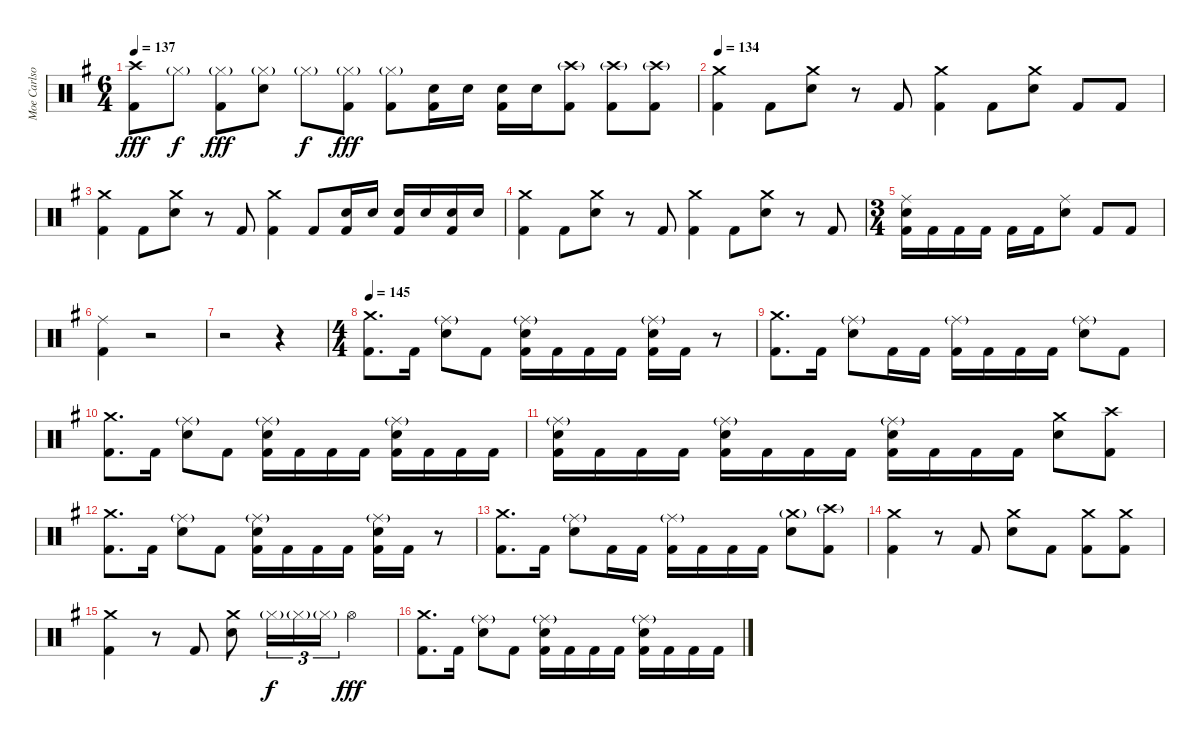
\track ("Moe Carlson" "Moe Carlso") {instrument percussion}
\staff {score}
\articulation defaults
\ts (6 4)
\tempo 137
\clef neutral
\ks g
("Crash high (hit)" "Kick (hit) 2").8{dy fff} "Hi-Hat (closed)"{g}.8{dy f} ("Hi-Hat (closed)"{g} "Kick (hit) 2").8{dy fff} ("Hi-Hat (closed)"{g} "Electric Snare (hit)").8 "Hi-Hat (closed)"{g}.8{dy f} ("Hi-Hat (closed)"{g} "Kick (hit) 2").8{dy fff} ("Hi-Hat (closed)"{g} "Kick (hit) 2").8 ("Electric Snare (hit)" "Kick (hit) 2").16 "Electric Snare (hit)".16 ("Electric Snare (hit)" "Kick (hit) 2").16 "Electric Snare (hit)".16 ("Crash high (hit)"{g} "Kick (hit) 2").8 ("Crash high (hit)"{g} "Kick (hit) 2").8 ("Crash high (hit)"{g} "Kick (hit) 2").8 |
\tempo 134
("Crash medium (hit)" "Kick (hit) 2").4 "Kick (hit) 2".8 ("Crash medium (hit)" "Electric Snare (hit)").8 r.8 "Kick (hit) 2".8 ("Crash medium (hit)" "Kick (hit) 2").4 "Kick (hit) 2".8 ("Crash medium (hit)" "Electric Snare (hit)").8 "Kick (hit) 2".8 "Kick (hit) 2".8 |
("Crash medium (hit)" "Kick (hit) 2").4 "Kick (hit) 2".8 ("Crash medium (hit)" "Electric Snare (hit)").8 r.8 "Kick (hit) 2".8 ("Crash medium (hit)" "Kick (hit) 2").4 "Kick (hit) 2".8 ("Electric Snare (hit)" "Kick (hit) 2").16 "Electric Snare (hit)".16 ("Electric Snare (hit)" "Kick (hit) 2").16 "Electric Snare (hit)".16 ("Electric Snare (hit)" "Kick (hit) 2").16 "Electric Snare (hit)".16 |
("Crash medium (hit)" "Kick (hit) 2").4 "Kick (hit) 2".8 ("Crash medium (hit)" "Electric Snare (hit)").8 r.8 "Kick (hit) 2".8 ("Crash medium (hit)" "Kick (hit) 2").4 "Kick (hit) 2".8 ("Crash medium (hit)" "Electric Snare (hit)").8 r.8 "Kick (hit) 2".8 |
\ts (3 4)
("Ride (middle)" "Electric Snare (hit)" "Kick (hit) 2").16 "Kick (hit) 2".16 "Kick (hit) 2".16 "Kick (hit) 2".16 "Kick (hit) 2".16 "Kick (hit) 2".16 ("Ride (middle)" "Electric Snare (hit)").8 "Kick (hit) 2".8 "Kick (hit) 2".8 |
("Ride (middle)" "Kick (hit) 2").4 r.2 |
r.2 r.4 |
\ts (4 4)
\tempo 145
("Crash medium (hit)" "Kick (hit) 2").8{d} "Kick (hit) 2".16 ("Ride (middle)"{g} "Electric Snare (hit)").8 "Kick (hit) 2".8 ("Ride (middle)"{g} "Electric Snare (hit)" "Kick (hit) 2").16 "Kick (hit) 2".16 "Kick (hit) 2".16 "Kick (hit) 2".16 ("Ride (middle)"{g} "Electric Snare (hit)" "Kick (hit) 2").16 "Kick (hit) 2".16 r.8 |
("Crash medium (hit)" "Kick (hit) 2").8{d} "Kick (hit) 2".16 ("Ride (middle)"{g} "Electric Snare (hit)").8 "Kick (hit) 2".16 "Kick (hit) 2".16 ("Ride (middle)"{g} "Kick (hit) 2").16 "Kick (hit) 2".16 "Kick (hit) 2".16 "Kick (hit) 2".16 ("Ride (middle)"{g} "Electric Snare (hit)").8 "Kick (hit) 2".8 |
("Crash medium (hit)" "Kick (hit) 2").8{d} "Kick (hit) 2".16 ("Ride (middle)"{g} "Electric Snare (hit)").8 "Kick (hit) 2".8 ("Ride (middle)"{g} "Electric Snare (hit)" "Kick (hit) 2").16 "Kick (hit) 2".16 "Kick (hit) 2".16 "Kick (hit) 2".16 ("Ride (middle)"{g} "Electric Snare (hit)" "Kick (hit) 2").16 "Kick (hit) 2".16 "Kick (hit) 2".16 "Kick (hit) 2".16 |
("Ride (middle)"{g} "Electric Snare (hit)" "Kick (hit) 2").16 "Kick (hit) 2".16 "Kick (hit) 2".16 "Kick (hit) 2".16 ("Ride (middle)"{g} "Electric Snare (hit)" "Kick (hit) 2").16 "Kick (hit) 2".16 "Kick (hit) 2".16 "Kick (hit) 2".16 ("Ride (middle)"{g} "Electric Snare (hit)" "Kick (hit) 2").16 "Kick (hit) 2".16 "Kick (hit) 2".16 "Kick (hit) 2".16 ("Crash medium (hit)" "Electric Snare (hit)").8 ("Crash high (hit)" "Kick (hit) 2").8 |
("Crash medium (hit)" "Kick (hit) 2").8{d} "Kick (hit) 2".16 ("Ride (middle)"{g} "Electric Snare (hit)").8 "Kick (hit) 2".8 ("Ride (middle)"{g} "Electric Snare (hit)" "Kick (hit) 2").16 "Kick (hit) 2".16 "Kick (hit) 2".16 "Kick (hit) 2".16 ("Ride (middle)"{g} "Electric Snare (hit)" "Kick (hit) 2").16 "Kick (hit) 2".16 r.8 |
("Crash medium (hit)" "Kick (hit) 2").8{d} "Kick (hit) 2".16 ("Ride (middle)"{g} "Electric Snare (hit)").8 "Kick (hit) 2".16 "Kick (hit) 2".16 ("Ride (middle)"{g} "Kick (hit) 2").16 "Kick (hit) 2".16 "Kick (hit) 2".16 "Kick (hit) 2".16 ("Crash medium (hit)"{g} "Electric Snare (hit)").8 ("Crash high (hit)"{g} "Kick (hit) 2").8 |
("Crash medium (hit)" "Kick (hit) 2").4 r.8 "Kick (hit) 2".8 ("Crash medium (hit)" "Electric Snare (hit)").8 "Kick (hit) 2".8 ("Crash medium (hit)" "Kick (hit) 2").8 ("Crash medium (hit)" "Kick (hit) 2").8 |
("Crash medium (hit)" "Kick (hit) 2").4 r.8 "Kick (hit) 2".8 ("Crash medium (hit)" "Electric Snare (hit)").8 "Hi-Hat (closed)"{g}.16{tu (3 2) dy f} "Hi-Hat (closed)"{g}.16{tu (3 2)} "Hi-Hat (closed)"{g}.16{tu (3 2)} "Hi-Hat (open)".4{dy fff} |
("Crash medium (hit)" "Kick (hit) 2").8{d} "Kick (hit) 2".16 ("Ride (middle)"{g} "Electric Snare (hit)").8 "Kick (hit) 2".8 ("Ride (middle)"{g} "Electric Snare (hit)" "Kick (hit) 2").16 "Kick (hit) 2".16 "Kick (hit) 2".16 "Kick (hit) 2".16 ("Ride (middle)"{g} "Electric Snare (hit)" "Kick (hit) 2").16 "Kick (hit) 2".16 "Kick (hit) 2".16 "Kick (hit) 2".16
